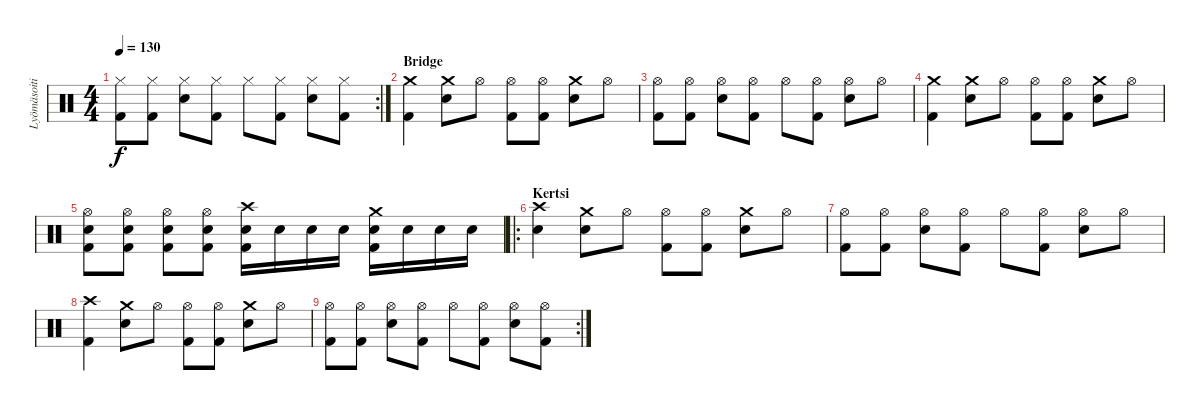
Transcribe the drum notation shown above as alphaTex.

\track ("Lyömäsoitin" "Lyömäsoiti") {instrument percussion}
\staff {score}
\articulation defaults
\rc 2
\ts (4 4)
\tempo 130
\clef neutral
\ks c
("Kick (hit) 2" "Hi-Hat (closed)").8{dy f} ("Kick (hit) 2" "Hi-Hat (closed)").8 ("Snare (hit) 2" "Hi-Hat (closed)").8 ("Hi-Hat (closed)" "Kick (hit) 2").8 "Hi-Hat (closed)".8 ("Kick (hit) 2" "Hi-Hat (closed)").8 ("Snare (hit) 2" "Hi-Hat (closed)").8 ("Hi-Hat (closed)" "Kick (hit) 2").8 |
\section ("" "Bridge")
("Kick (hit) 2" "Crash medium (hit)").4 ("Snare (hit) 2" "Crash medium (hit)").8 "Hi-Hat (open)".8 ("Kick (hit) 2" "Hi-Hat (open)").8 ("Kick (hit) 2" "Hi-Hat (open)").8 ("Snare (hit) 2" "Crash medium (hit)").8 "Hi-Hat (open)".8 |
("Kick (hit) 2" "Hi-Hat (open)").8 ("Kick (hit) 2" "Hi-Hat (open)").8 ("Snare (hit) 2" "Hi-Hat (open)").8 ("Hi-Hat (open)" "Kick (hit) 2").8 "Hi-Hat (open)".8 ("Kick (hit) 2" "Hi-Hat (open)").8 ("Snare (hit) 2" "Hi-Hat (open)").8 "Hi-Hat (open)".8 |
("Kick (hit) 2" "Crash medium (hit)").4 ("Snare (hit) 2" "Crash medium (hit)").8 "Hi-Hat (open)".8 ("Kick (hit) 2" "Hi-Hat (open)").8 ("Kick (hit) 2" "Hi-Hat (open)").8 ("Snare (hit) 2" "Crash medium (hit)").8 "Hi-Hat (open)".8 |
("Kick (hit) 2" "Hi-Hat (open)" "Snare (hit) 2").8 ("Kick (hit) 2" "Hi-Hat (open)" "Snare (hit) 2").8 ("Snare (hit) 2" "Hi-Hat (open)" "Kick (hit) 2").8 ("Hi-Hat (open)" "Kick (hit) 2" "Snare (hit) 2").8 ("Snare (hit) 2" "Crash high (hit)" "Kick (hit) 2").16 "Snare (hit) 2".16 "Snare (hit) 2".16 "Snare (hit) 2".16 ("Snare (hit) 2" "Crash medium (hit)" "Kick (hit) 2").16 "Snare (hit) 2".16 "Snare (hit) 2".16 "Snare (hit) 2".16 |
\ro
\section ("" "Kertsi")
("Snare (hit)" "Crash high (hit)").4 ("Snare (hit) 2" "Crash medium (hit)").8 "Hi-Hat (open)".8 ("Kick (hit) 2" "Hi-Hat (open)").8 ("Kick (hit) 2" "Hi-Hat (open)").8 ("Snare (hit) 2" "Crash medium (hit)").8 "Hi-Hat (open)".8 |
("Kick (hit) 2" "Hi-Hat (open)").8 ("Kick (hit) 2" "Hi-Hat (open)").8 ("Snare (hit) 2" "Hi-Hat (open)").8 ("Hi-Hat (open)" "Kick (hit) 2").8 "Hi-Hat (open)".8 ("Kick (hit) 2" "Hi-Hat (open)").8 ("Snare (hit) 2" "Hi-Hat (open)").8 "Hi-Hat (open)".8 |
("Kick (hit) 2" "Crash high (hit)").4 ("Snare (hit) 2" "Crash medium (hit)").8 "Hi-Hat (open)".8 ("Kick (hit) 2" "Hi-Hat (open)").8 ("Kick (hit) 2" "Hi-Hat (open)").8 ("Snare (hit) 2" "Crash medium (hit)").8 "Hi-Hat (open)".8 |
\rc 2
("Kick (hit) 2" "Hi-Hat (open)").8 ("Kick (hit) 2" "Hi-Hat (open)").8 ("Snare (hit) 2" "Hi-Hat (open)").8 ("Hi-Hat (open)" "Kick (hit) 2").8 "Hi-Hat (open)".8 ("Kick (hit) 2" "Hi-Hat (open)").8 ("Snare (hit) 2" "Hi-Hat (open)").8 ("Hi-Hat (open)" "Kick (hit) 2").8
